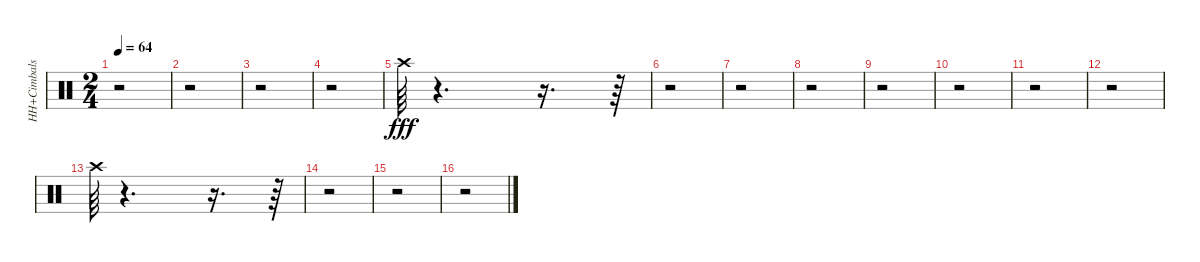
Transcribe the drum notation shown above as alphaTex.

\track ("HH+Cimbals" "HH+Cimbals") {instrument percussion}
\staff {score}
\articulation defaults
\ts (2 4)
\tempo 64
\clef neutral
\ks c
r.2{dy fff} |
r.2 |
r.2 |
r.2 |
"Crash high (hit)".64 r.4{d} r.16{d} r.64 |
r.2 |
r.2 |
r.2 |
r.2 |
r.2 |
r.2 |
r.2 |
"Crash high (hit)".64 r.4{d} r.16{d} r.64 |
r.2 |
r.2 |
r.2
